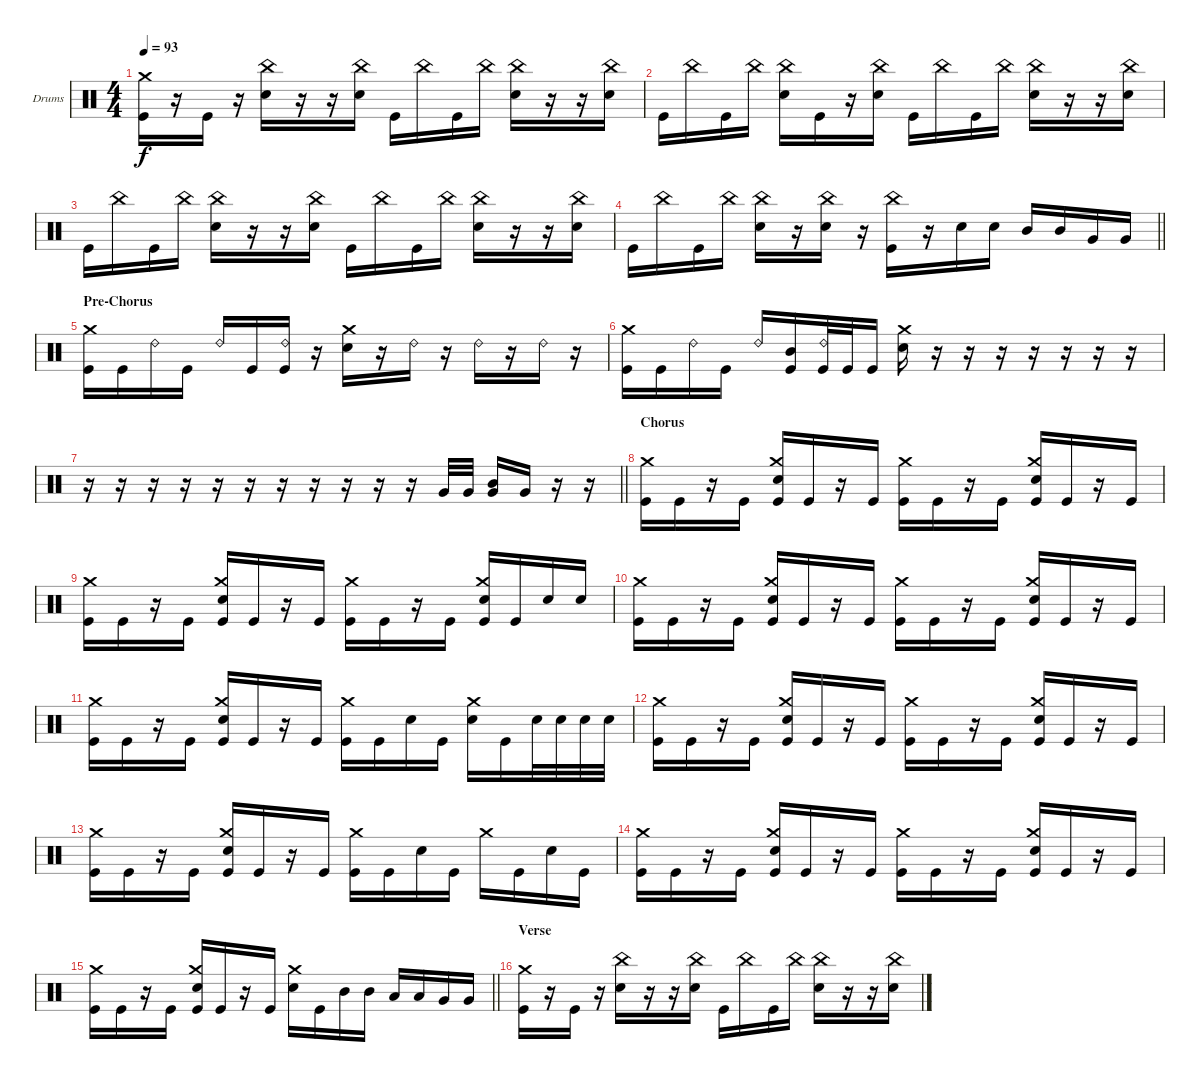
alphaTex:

\bracketExtendMode groupsimilarinstruments
\firstSystemTrackNameOrientation horizontal
\otherSystemsTrackNameOrientation horizontal
\track ("Drumkit" "Drums") {instrument percussion}
\staff {score}
\articulation defaults
\ts (4 4)
\tempo 93
\clef neutral
\scale
0.333333
\ks c
("Kick (hit)" "Crash medium (hit)").16{dy f} r.16 "Kick (hit)".16 r.16 ("Snare (hit) 2" "China (hit)").16 r.16 r.16 ("Snare (hit) 2" "China (hit)").16 "Kick (hit)".16 "China (hit)".16 "Kick (hit)".16 "China (hit)".16 ("Snare (hit) 2" "China (hit)").16 r.16 r.16 ("Snare (hit) 2" "China (hit)").16 |
\scale
0.333333 "Kick (hit)".16 "China (hit)".16 "Kick (hit)".16 "China (hit)".16 ("Snare (hit) 2" "China (hit)").16 "Kick (hit)".16 r.16 ("Snare (hit) 2" "China (hit)").16 "Kick (hit)".16 "China (hit)".16 "Kick (hit)".16 "China (hit)".16 ("Snare (hit) 2" "China (hit)").16 r.16 r.16 ("Snare (hit) 2" "China (hit)").16 |
\scale
0.333333 "Kick (hit)".16 "China (hit)".16 "Kick (hit)".16 "China (hit)".16 ("Snare (hit) 2" "China (hit)").16 r.16 r.16 ("Snare (hit) 2" "China (hit)").16 "Kick (hit)".16 "China (hit)".16 "Kick (hit)".16 "China (hit)".16 ("Snare (hit) 2" "China (hit)").16 r.16 r.16 ("Snare (hit) 2" "China (hit)").16 |
\scale
0.333333
\barLineRight lightlight "Kick (hit)".16 "China (hit)".16 "Kick (hit)".16 "China (hit)".16
("Snare (hit) 2" "China (hit)").16 r.16 ("Snare (hit) 2" "China (hit)").16 r.16 ("Kick (hit)" "China (hit)").16 r.16 "Snare (hit) 2".16 "Snare (hit) 2".16 "Mid Tom (hit)".16 "Mid Tom (hit)".16 "Very Low Tom (hit)".16 "Very Low Tom (hit)".16 |
\section ("" "Pre-Chorus")
\scale
0.333333 ("Kick (hit)" "Crash medium (hit)").16 "Kick (hit)".16 "Ride (bell) 2".16 "Kick (hit)".16 "Ride (bell) 2".16 "Kick (hit)".16 ("Kick (hit)" "Ride (bell) 2").16 r.16 ("Snare (hit) 2" "Crash medium (hit)").16 r.16 "Ride (bell) 2".16 r.16 "Ride (bell) 2".16 r.16 "Ride (bell) 2".16 r.16 |
\scale
0.333333 ("Kick (hit)" "Crash medium (hit)").16 "Kick (hit)".16 "Ride (bell) 2".16 "Kick (hit)".16 "Ride (bell) 2".16 ("Kick (hit)" "Mid Tom (hit)").16 ("Kick (hit)" "Ride (bell) 2").32 "Kick (hit)".32 "Kick (hit)".16 ("Snare (hit) 2" "Crash medium (hit)").16 r.16 r.16 r.16 r.16 r.16 r.16 r.16 |
\scale
0.333333
\barLineRight lightlight
r.16 r.16 r.16 r.16 r.16 r.16 r.16 r.16 r.16 r.16 r.16 "Very Low Tom (hit)".32 "Very Low Tom (hit)".32 ("Very Low Tom (hit)" "Mid Tom (hit)").16 "Very Low Tom (hit)".16 r.16 r.16 |
\section ("" "Chorus")
\scale
0.333333 ("Kick (hit)" "Crash medium (hit)").16 "Kick (hit)".16 r.16 "Kick (hit)".16 ("Kick (hit)" "Crash medium (hit)" "Snare (hit) 2").16 "Kick (hit)".16 r.16 "Kick (hit)".16 ("Kick (hit)" "Crash medium (hit)").16 "Kick (hit)".16 r.16 "Kick (hit)".16 ("Kick (hit)" "Crash medium (hit)" "Snare (hit) 2").16 "Kick (hit)".16 r.16 "Kick (hit)".16 |
\scale
0.333333 ("Kick (hit)" "Crash medium (hit)").16 "Kick (hit)".16 r.16 "Kick (hit)".16 ("Kick (hit)" "Crash medium (hit)" "Snare (hit) 2").16 "Kick (hit)".16 r.16 "Kick (hit)".16 ("Kick (hit)" "Crash medium (hit)").16 "Kick (hit)".16 r.16 "Kick (hit)".16 ("Kick (hit)" "Crash medium (hit)" "Snare (hit) 2").16 "Kick (hit)".16 "Snare (hit) 2".16 "Snare (hit) 2".16 |
\scale
0.333333 ("Kick (hit)" "Crash medium (hit)").16 "Kick (hit)".16 r.16 "Kick (hit)".16 ("Kick (hit)" "Crash medium (hit)" "Snare (hit) 2").16 "Kick (hit)".16 r.16 "Kick (hit)".16 ("Kick (hit)" "Crash medium (hit)").16 "Kick (hit)".16 r.16 "Kick (hit)".16 ("Kick (hit)" "Crash medium (hit)" "Snare (hit) 2").16 "Kick (hit)".16 r.16 "Kick (hit)".16 |
\scale
0.333333 ("Kick (hit)" "Crash medium (hit)").16 "Kick (hit)".16 r.16 "Kick (hit)".16 ("Kick (hit)" "Crash medium (hit)" "Snare (hit) 2").16 "Kick (hit)".16 r.16 "Kick (hit)".16 ("Kick (hit)" "Crash medium (hit)").16 "Kick (hit)".16 "Snare (hit) 2".16 "Kick (hit)".16 ("Crash medium (hit)" "Snare (hit) 2").16 "Kick (hit)".16 "Snare (hit) 2".32 "Snare (hit) 2".32 "Snare (hit) 2".32 "Snare (hit) 2".32 |
\scale
0.333333 ("Kick (hit)" "Crash medium (hit)").16 "Kick (hit)".16 r.16 "Kick (hit)".16 ("Kick (hit)" "Crash medium (hit)" "Snare (hit) 2").16 "Kick (hit)".16 r.16 "Kick (hit)".16 ("Kick (hit)" "Crash medium (hit)").16 "Kick (hit)".16 r.16 "Kick (hit)".16 ("Kick (hit)" "Crash medium (hit)" "Snare (hit) 2").16 "Kick (hit)".16 r.16 "Kick (hit)".16 |
\scale
0.333333 ("Kick (hit)" "Crash medium (hit)").16 "Kick (hit)".16 r.16 "Kick (hit)".16 ("Kick (hit)" "Crash medium (hit)" "Snare (hit) 2").16 "Kick (hit)".16 r.16 "Kick (hit)".16 ("Kick (hit)" "Crash medium (hit)").16 "Kick (hit)".16 "Snare (hit) 2".16 "Kick (hit)".16 "Crash medium (hit)".16 "Kick (hit)".16 "Snare (hit) 2".16 "Kick (hit)".16 |
\scale
0.333333 ("Kick (hit)" "Crash medium (hit)").16 "Kick (hit)".16 r.16 "Kick (hit)".16 ("Kick (hit)" "Crash medium (hit)" "Snare (hit) 2").16 "Kick (hit)".16 r.16 "Kick (hit)".16 ("Kick (hit)" "Crash medium (hit)").16 "Kick (hit)".16 r.16 "Kick (hit)".16 ("Kick (hit)" "Crash medium (hit)" "Snare (hit) 2").16 "Kick (hit)".16 r.16 "Kick (hit)".16 |
\scale
0.333333
\barLineRight lightlight
("Kick (hit)" "Crash medium (hit)").16 "Kick (hit)".16 r.16 "Kick (hit)".16 ("Kick (hit)" "Crash medium (hit)" "Snare (hit) 2").16 "Kick (hit)".16 r.16 "Kick (hit)".16 ("Crash medium (hit)" "Snare (hit) 2").16 "Kick (hit)".16 "Mid Tom (hit)".16 "Mid Tom (hit)".16 "Low Tom (hit)".16 "Low Tom (hit)".16 "Very Low Tom (hit)".16 "Very Low Tom (hit)".16 |
\section ("" "Verse")
\scale
0.333333 ("Kick (hit)" "Crash medium (hit)").16 r.16 "Kick (hit)".16 r.16 ("Snare (hit) 2" "China (hit)").16 r.16 r.16 ("Snare (hit) 2" "China (hit)").16 "Kick (hit)".16 "China (hit)".16 "Kick (hit)".16 "China (hit)".16 ("Snare (hit) 2" "China (hit)").16 r.16 r.16 ("Snare (hit) 2" "China (hit)").16
